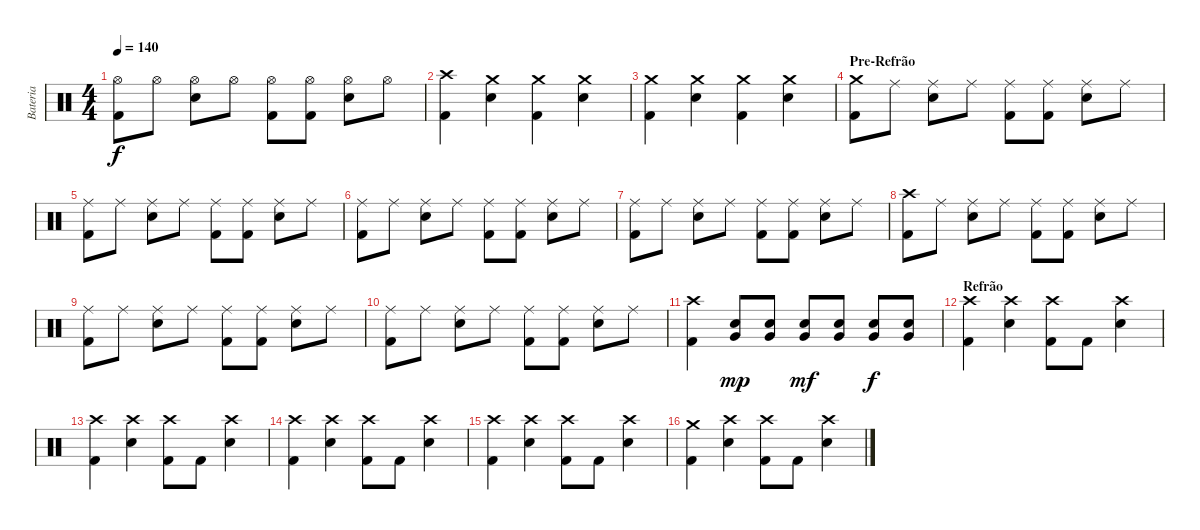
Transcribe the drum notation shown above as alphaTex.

\track ("Bateria" "Bateria") {instrument percussion}
\staff {score}
\articulation defaults
\ts (4 4)
\tempo 140
\clef neutral
\ks c
("Hi-Hat (open)" "Kick (hit) 2").8{dy f} "Hi-Hat (open)".8 ("Hi-Hat (open)" "Electric Snare (hit)").8 "Hi-Hat (open)".8 ("Hi-Hat (open)" "Kick (hit) 2").8 ("Hi-Hat (open)" "Kick (hit) 2").8 ("Hi-Hat (open)" "Electric Snare (hit)").8 "Hi-Hat (open)".8 |
("Crash high (hit)" "Kick (hit) 2").4 ("Crash medium (hit)" "Electric Snare (hit)").4 ("Crash medium (hit)" "Kick (hit) 2").4 ("Crash medium (hit)" "Electric Snare (hit)").4 |
("Crash medium (hit)" "Kick (hit) 2").4 ("Crash medium (hit)" "Electric Snare (hit)").4 ("Crash medium (hit)" "Kick (hit) 2").4 ("Crash medium (hit)" "Electric Snare (hit)").4 |
\section ("" "Pre-Refrão")
("Crash medium (hit)" "Kick (hit) 2").8 "Ride (middle)".8 ("Ride (middle)" "Electric Snare (hit)").8 "Ride (middle)".8 ("Ride (middle)" "Kick (hit) 2").8 ("Ride (middle)" "Kick (hit) 2").8 ("Ride (middle)" "Electric Snare (hit)").8 "Ride (middle)".8 |
("Ride (middle)" "Kick (hit) 2").8 "Ride (middle)".8 ("Ride (middle)" "Electric Snare (hit)").8 "Ride (middle)".8 ("Ride (middle)" "Kick (hit) 2").8 ("Ride (middle)" "Kick (hit) 2").8 ("Ride (middle)" "Electric Snare (hit)").8 "Ride (middle)".8 |
("Ride (middle)" "Kick (hit) 2").8 "Ride (middle)".8 ("Ride (middle)" "Electric Snare (hit)").8 "Ride (middle)".8 ("Ride (middle)" "Kick (hit) 2").8 ("Ride (middle)" "Kick (hit) 2").8 ("Ride (middle)" "Electric Snare (hit)").8 "Ride (middle)".8 |
("Ride (middle)" "Kick (hit) 2").8 "Ride (middle)".8 ("Ride (middle)" "Electric Snare (hit)").8 "Ride (middle)".8 ("Ride (middle)" "Kick (hit) 2").8 ("Ride (middle)" "Kick (hit) 2").8 ("Ride (middle)" "Electric Snare (hit)").8 "Ride (middle)".8 |
("Crash high (hit)" "Kick (hit) 2").8 "Ride (middle)".8 ("Ride (middle)" "Electric Snare (hit)").8 "Ride (middle)".8 ("Ride (middle)" "Kick (hit) 2").8 ("Ride (middle)" "Kick (hit) 2").8 ("Ride (middle)" "Electric Snare (hit)").8 "Ride (middle)".8 |
("Ride (middle)" "Kick (hit) 2").8 "Ride (middle)".8 ("Ride (middle)" "Electric Snare (hit)").8 "Ride (middle)".8 ("Ride (middle)" "Kick (hit) 2").8 ("Ride (middle)" "Kick (hit) 2").8 ("Ride (middle)" "Electric Snare (hit)").8 "Ride (middle)".8 |
("Ride (middle)" "Kick (hit) 2").8 "Ride (middle)".8 ("Ride (middle)" "Electric Snare (hit)").8 "Ride (middle)".8 ("Ride (middle)" "Kick (hit) 2").8 ("Ride (middle)" "Kick (hit) 2").8 ("Ride (middle)" "Electric Snare (hit)").8 "Ride (middle)".8 |
("Crash high (hit)" "Kick (hit) 2").4 ("Electric Snare (hit)" "Very Low Tom (hit)").8{dy mp} ("Electric Snare (hit)" "Very Low Tom (hit)").8 ("Electric Snare (hit)" "Very Low Tom (hit)").8{dy mf} ("Electric Snare (hit)" "Very Low Tom (hit)").8 ("Electric Snare (hit)" "Very Low Tom (hit)").8{dy f} ("Electric Snare (hit)" "Very Low Tom (hit)").8 |
\section ("" "Refrão")
("Crash high (hit)" "Kick (hit) 2").4 ("Crash high (hit)" "Electric Snare (hit)").4 ("Crash high (hit)" "Kick (hit) 2").8 "Kick (hit) 2".8 ("Crash high (hit)" "Electric Snare (hit)").4 |
("Crash high (hit)" "Kick (hit) 2").4 ("Crash high (hit)" "Electric Snare (hit)").4 ("Crash high (hit)" "Kick (hit) 2").8 "Kick (hit) 2".8 ("Crash high (hit)" "Electric Snare (hit)").4 |
("Crash high (hit)" "Kick (hit) 2").4 ("Crash high (hit)" "Electric Snare (hit)").4 ("Crash high (hit)" "Kick (hit) 2").8 "Kick (hit) 2".8 ("Crash high (hit)" "Electric Snare (hit)").4 |
("Crash high (hit)" "Kick (hit) 2").4 ("Crash high (hit)" "Electric Snare (hit)").4 ("Crash high (hit)" "Kick (hit) 2").8 "Kick (hit) 2".8 ("Crash high (hit)" "Electric Snare (hit)").4 |
("Crash medium (hit)" "Kick (hit) 2").4 ("Crash high (hit)" "Electric Snare (hit)").4 ("Crash high (hit)" "Kick (hit) 2").8 "Kick (hit) 2".8 ("Crash high (hit)" "Electric Snare (hit)").4
